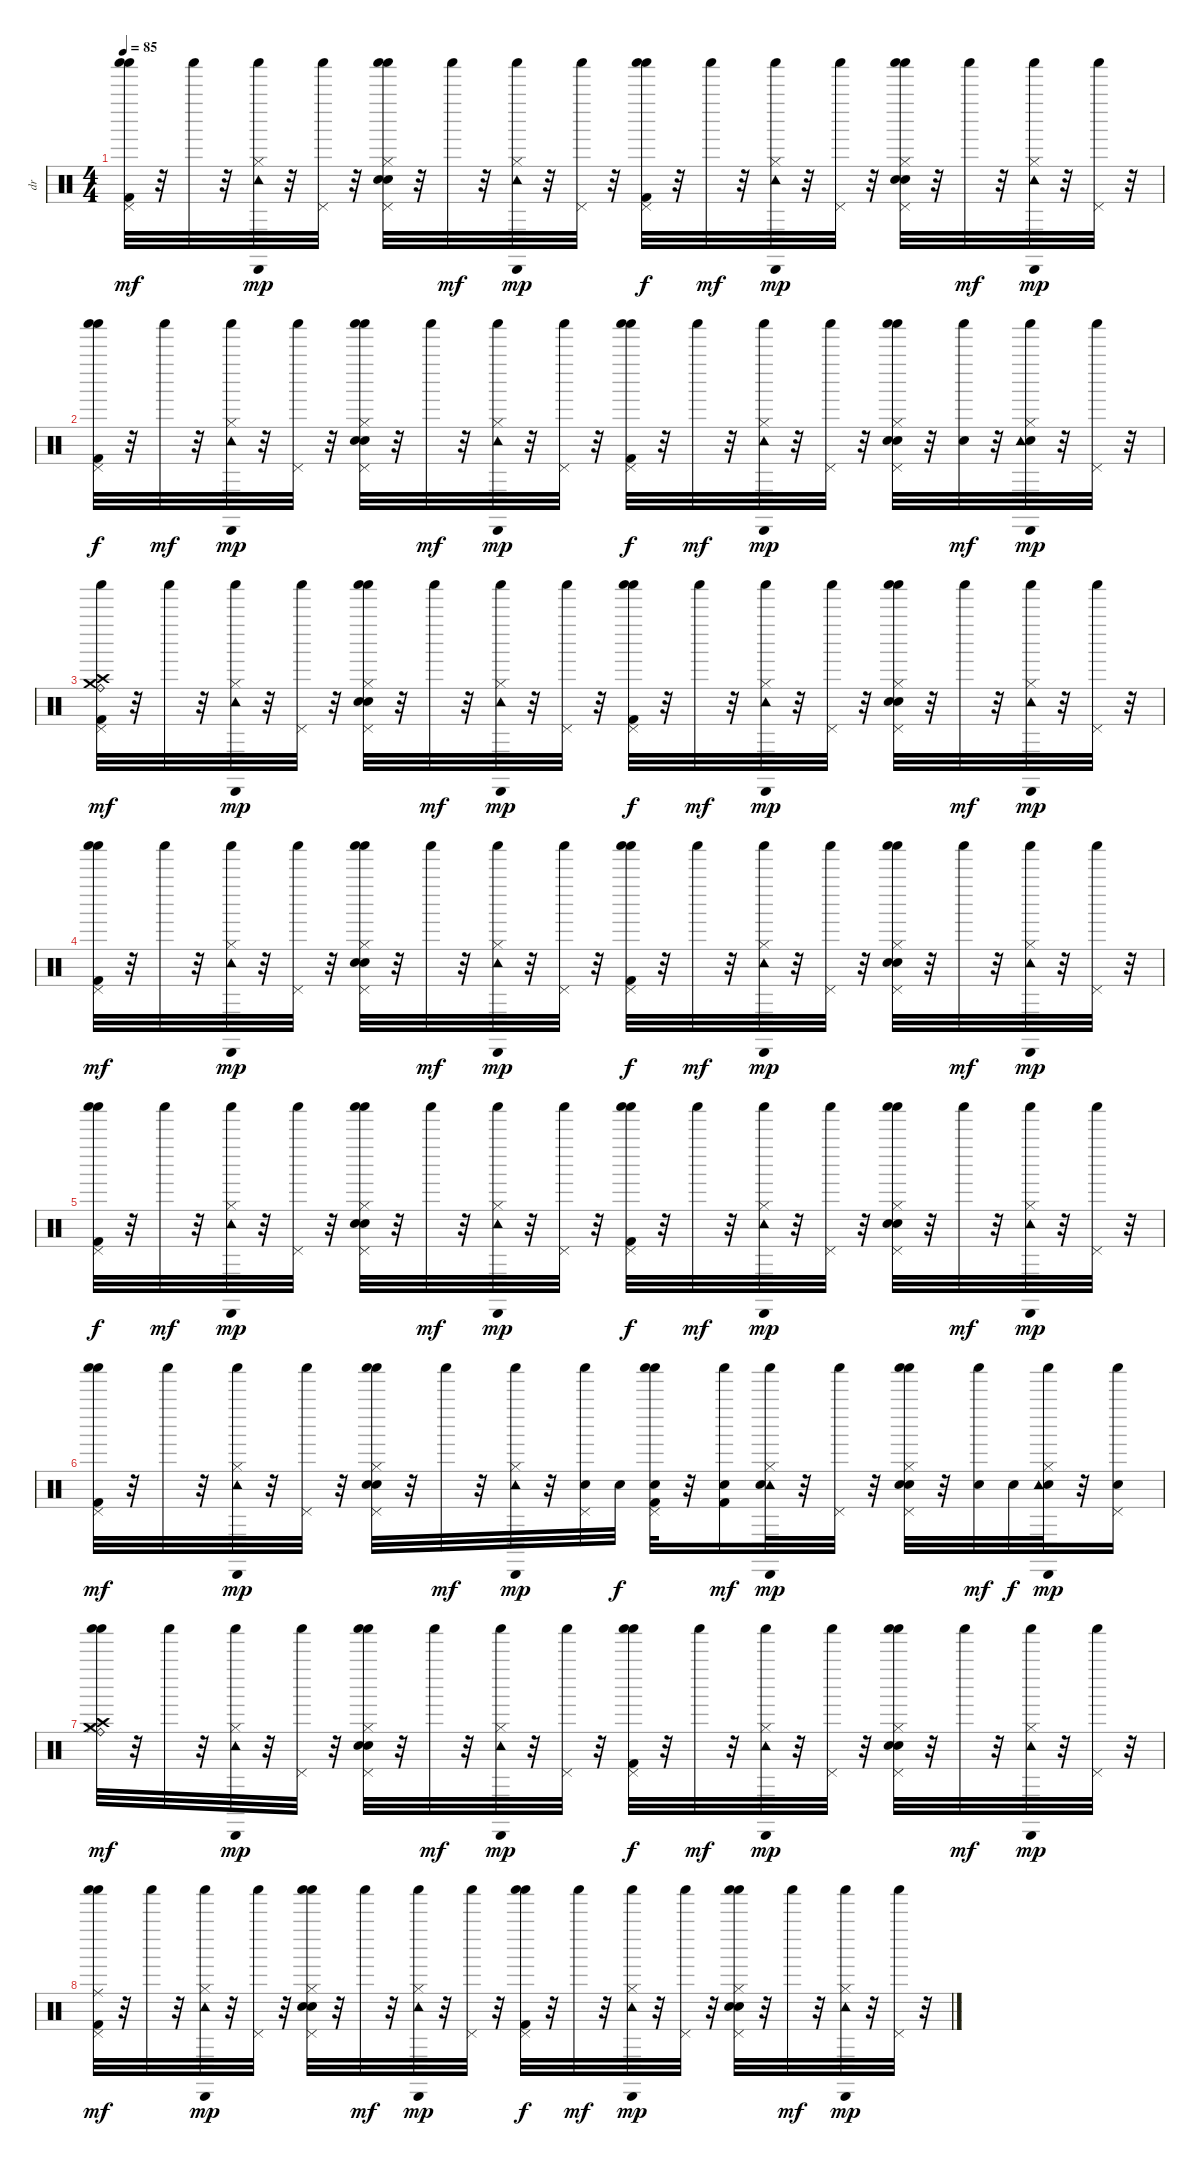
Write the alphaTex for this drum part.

\track ("dr" "dr") {instrument percussion}
\staff {score}
\articulation defaults
\ts (4 4)
\tempo 85
\clef neutral
\ks c
("Pedal Hi-Hat (hit)" "Shaker (hit)" "Shaker (hit)" "Kick (hit) 2").32{dy mf} r.32 "Shaker (hit)".32 r.32 ("Hi-Hat (closed)" "Cabasa (hit)" "Tambourine (hit)" "Shaker (hit)").32{dy mp} r.32 ("Pedal Hi-Hat (hit)" "Shaker (hit)").32 r.32 ("Electric Snare (hit)" "Pedal Hi-Hat (hit)" "Shaker (hit)" "Shaker (hit)" "Hi-Hat (closed)" "Snare (hit) 2").32 r.32 "Shaker (hit)".32{dy mf} r.32 ("Hi-Hat (closed)" "Tambourine (hit)" "Cabasa (hit)" "Shaker (hit)").32{dy mp} r.32 ("Pedal Hi-Hat (hit)" "Shaker (hit)").32 r.32 ("Pedal Hi-Hat (hit)" "Shaker (hit)" "Shaker (hit)" "Kick (hit) 2").32{dy f} r.32 "Shaker (hit)".32{dy mf} r.32 ("Hi-Hat (closed)" "Cabasa (hit)" "Tambourine (hit)" "Shaker (hit)").32{dy mp} r.32 ("Pedal Hi-Hat (hit)" "Shaker (hit)").32 r.32 ("Electric Snare (hit)" "Pedal Hi-Hat (hit)" "Shaker (hit)" "Shaker (hit)" "Hi-Hat (closed)" "Snare (hit) 2").32 r.32 "Shaker (hit)".32{dy mf} r.32 ("Hi-Hat (closed)" "Cabasa (hit)" "Tambourine (hit)" "Shaker (hit)").32{dy mp} r.32 ("Pedal Hi-Hat (hit)" "Shaker (hit)").32 r.32 |
("Pedal Hi-Hat (hit)" "Shaker (hit)" "Shaker (hit)" "Kick (hit) 2").32{dy f} r.32 "Shaker (hit)".32{dy mf} r.32 ("Hi-Hat (closed)" "Cabasa (hit)" "Tambourine (hit)" "Shaker (hit)").32{dy mp} r.32 ("Pedal Hi-Hat (hit)" "Shaker (hit)").32 r.32 ("Pedal Hi-Hat (hit)" "Shaker (hit)" "Shaker (hit)" "Hi-Hat (closed)" "Electric Snare (hit)" "Snare (hit) 2").32 r.32 "Shaker (hit)".32{dy mf} r.32 ("Hi-Hat (closed)" "Cabasa (hit)" "Tambourine (hit)" "Shaker (hit)").32{dy mp} r.32 ("Pedal Hi-Hat (hit)" "Shaker (hit)").32 r.32 ("Pedal Hi-Hat (hit)" "Shaker (hit)" "Shaker (hit)" "Kick (hit) 2").32{dy f} r.32 "Shaker (hit)".32{dy mf} r.32 ("Hi-Hat (closed)" "Cabasa (hit)" "Tambourine (hit)" "Shaker (hit)").32{dy mp} r.32 ("Pedal Hi-Hat (hit)" "Shaker (hit)").32 r.32 ("Electric Snare (hit)" "Pedal Hi-Hat (hit)" "Shaker (hit)" "Shaker (hit)" "Hi-Hat (closed)" "Snare (hit) 2").32 r.32 ("Shaker (hit)" "Snare (hit) 2").32{dy mf} r.32 ("Snare (hit) 2" "Hi-Hat (closed)" "Cabasa (hit)" "Tambourine (hit)" "Shaker (hit)").32{dy mp} r.32 ("Pedal Hi-Hat (hit)" "Shaker (hit)").32 r.32 |
("Kick (hit) 2" "Crash high (hit)" "Ride (bell)" "Crash medium (hit)" "Pedal Hi-Hat (hit)" "Shaker (hit)").32{dy mf} r.32 "Shaker (hit)".32 r.32 ("Hi-Hat (closed)" "Cabasa (hit)" "Tambourine (hit)" "Shaker (hit)").32{dy mp} r.32 ("Pedal Hi-Hat (hit)" "Shaker (hit)").32 r.32 ("Electric Snare (hit)" "Pedal Hi-Hat (hit)" "Shaker (hit)" "Shaker (hit)" "Hi-Hat (closed)" "Snare (hit) 2").32 r.32 "Shaker (hit)".32{dy mf} r.32 ("Hi-Hat (closed)" "Cabasa (hit)" "Tambourine (hit)" "Shaker (hit)").32{dy mp} r.32 ("Pedal Hi-Hat (hit)" "Shaker (hit)").32 r.32 ("Pedal Hi-Hat (hit)" "Shaker (hit)" "Shaker (hit)" "Kick (hit) 2").32{dy f} r.32 "Shaker (hit)".32{dy mf} r.32 ("Hi-Hat (closed)" "Cabasa (hit)" "Tambourine (hit)" "Shaker (hit)").32{dy mp} r.32 ("Pedal Hi-Hat (hit)" "Shaker (hit)").32 r.32 ("Electric Snare (hit)" "Pedal Hi-Hat (hit)" "Shaker (hit)" "Shaker (hit)" "Hi-Hat (closed)" "Snare (hit) 2").32 r.32 "Shaker (hit)".32{dy mf} r.32 ("Hi-Hat (closed)" "Cabasa (hit)" "Tambourine (hit)" "Shaker (hit)").32{dy mp} r.32 ("Pedal Hi-Hat (hit)" "Shaker (hit)").32 r.32 |
("Pedal Hi-Hat (hit)" "Shaker (hit)" "Shaker (hit)" "Kick (hit) 2").32{dy mf} r.32 "Shaker (hit)".32 r.32 ("Hi-Hat (closed)" "Cabasa (hit)" "Tambourine (hit)" "Shaker (hit)").32{dy mp} r.32 ("Pedal Hi-Hat (hit)" "Shaker (hit)").32 r.32 ("Electric Snare (hit)" "Pedal Hi-Hat (hit)" "Shaker (hit)" "Shaker (hit)" "Hi-Hat (closed)" "Snare (hit) 2").32 r.32 "Shaker (hit)".32{dy mf} r.32 ("Hi-Hat (closed)" "Cabasa (hit)" "Tambourine (hit)" "Shaker (hit)").32{dy mp} r.32 ("Pedal Hi-Hat (hit)" "Shaker (hit)").32 r.32 ("Pedal Hi-Hat (hit)" "Shaker (hit)" "Shaker (hit)" "Kick (hit) 2").32{dy f} r.32 "Shaker (hit)".32{dy mf} r.32 ("Hi-Hat (closed)" "Cabasa (hit)" "Tambourine (hit)" "Shaker (hit)").32{dy mp} r.32 ("Pedal Hi-Hat (hit)" "Shaker (hit)").32 r.32 ("Electric Snare (hit)" "Pedal Hi-Hat (hit)" "Shaker (hit)" "Shaker (hit)" "Hi-Hat (closed)" "Snare (hit) 2").32 r.32 "Shaker (hit)".32{dy mf} r.32 ("Hi-Hat (closed)" "Cabasa (hit)" "Tambourine (hit)" "Shaker (hit)").32{dy mp} r.32 ("Pedal Hi-Hat (hit)" "Shaker (hit)").32 r.32 |
("Pedal Hi-Hat (hit)" "Shaker (hit)" "Shaker (hit)" "Kick (hit) 2").32{dy f} r.32 "Shaker (hit)".32{dy mf} r.32 ("Hi-Hat (closed)" "Cabasa (hit)" "Tambourine (hit)" "Shaker (hit)").32{dy mp} r.32 ("Pedal Hi-Hat (hit)" "Shaker (hit)").32 r.32 ("Electric Snare (hit)" "Pedal Hi-Hat (hit)" "Shaker (hit)" "Shaker (hit)" "Hi-Hat (closed)" "Snare (hit) 2").32 r.32 "Shaker (hit)".32{dy mf} r.32 ("Hi-Hat (closed)" "Cabasa (hit)" "Tambourine (hit)" "Shaker (hit)").32{dy mp} r.32 ("Pedal Hi-Hat (hit)" "Shaker (hit)").32 r.32 ("Pedal Hi-Hat (hit)" "Shaker (hit)" "Shaker (hit)" "Kick (hit) 2").32{dy f} r.32 "Shaker (hit)".32{dy mf} r.32 ("Hi-Hat (closed)" "Cabasa (hit)" "Tambourine (hit)" "Shaker (hit)").32{dy mp} r.32 ("Pedal Hi-Hat (hit)" "Shaker (hit)").32 r.32 ("Electric Snare (hit)" "Pedal Hi-Hat (hit)" "Shaker (hit)" "Shaker (hit)" "Hi-Hat (closed)" "Snare (hit) 2").32 r.32 "Shaker (hit)".32{dy mf} r.32 ("Hi-Hat (closed)" "Cabasa (hit)" "Tambourine (hit)" "Shaker (hit)").32{dy mp} r.32 ("Pedal Hi-Hat (hit)" "Shaker (hit)").32 r.32 |
("Pedal Hi-Hat (hit)" "Shaker (hit)" "Shaker (hit)" "Kick (hit) 2").32{dy mf} r.32 "Shaker (hit)".32 r.32 ("Hi-Hat (closed)" "Cabasa (hit)" "Tambourine (hit)" "Shaker (hit)").32{dy mp} r.32 ("Pedal Hi-Hat (hit)" "Shaker (hit)").32 r.32 ("Electric Snare (hit)" "Pedal Hi-Hat (hit)" "Shaker (hit)" "Shaker (hit)" "Hi-Hat (closed)" "Snare (hit) 2").32 r.32 "Shaker (hit)".32{dy mf} r.32 ("Hi-Hat (closed)" "Cabasa (hit)" "Tambourine (hit)" "Shaker (hit)").32{dy mp} r.32 ("Shaker (hit)" "Pedal Hi-Hat (hit)" "Snare (hit) 2").32 "Snare (hit) 2".32{dy f} ("Pedal Hi-Hat (hit)" "Shaker (hit)" "Shaker (hit)" "Kick (hit) 2" "Snare (hit) 2").32 r.32 ("Shaker (hit)" "Kick (hit) 2" "Snare (hit) 2").16{dy mf} ("Hi-Hat (closed)" "Cabasa (hit)" "Tambourine (hit)" "Shaker (hit)" "Snare (hit) 2").32{dy mp} r.32 ("Pedal Hi-Hat (hit)" "Shaker (hit)").32 r.32 ("Electric Snare (hit)" "Pedal Hi-Hat (hit)" "Shaker (hit)" "Shaker (hit)" "Hi-Hat (closed)" "Snare (hit) 2").32 r.32 ("Snare (hit) 2" "Shaker (hit)").32{dy mf} "Snare (hit) 2".32{dy f} ("Snare (hit) 2" "Hi-Hat (closed)" "Cabasa (hit)" "Tambourine (hit)" "Shaker (hit)").32{dy mp} r.32 ("Pedal Hi-Hat (hit)" "Shaker (hit)" "Snare (hit) 2").16 |
("Shaker (hit)" "Shaker (hit)" "Crash medium (hit)" "Ride (bell)" "Crash high (hit)" "Hi-Hat (closed)").32{dy mf} r.32 "Shaker (hit)".32 r.32 ("Hi-Hat (closed)" "Tambourine (hit)" "Cabasa (hit)" "Shaker (hit)").32{dy mp} r.32 ("Pedal Hi-Hat (hit)" "Shaker (hit)").32 r.32 ("Electric Snare (hit)" "Pedal Hi-Hat (hit)" "Shaker (hit)" "Shaker (hit)" "Hi-Hat (closed)" "Snare (hit) 2").32 r.32 "Shaker (hit)".32{dy mf} r.32 ("Hi-Hat (closed)" "Tambourine (hit)" "Cabasa (hit)" "Shaker (hit)").32{dy mp} r.32 ("Pedal Hi-Hat (hit)" "Shaker (hit)").32 r.32 ("Pedal Hi-Hat (hit)" "Shaker (hit)" "Shaker (hit)" "Kick (hit) 2").32{dy f} r.32 "Shaker (hit)".32{dy mf} r.32 ("Hi-Hat (closed)" "Tambourine (hit)" "Cabasa (hit)" "Shaker (hit)").32{dy mp} r.32 ("Pedal Hi-Hat (hit)" "Shaker (hit)").32 r.32 ("Electric Snare (hit)" "Pedal Hi-Hat (hit)" "Shaker (hit)" "Shaker (hit)" "Hi-Hat (closed)" "Snare (hit) 2").32 r.32 "Shaker (hit)".32{dy mf} r.32 ("Hi-Hat (closed)" "Tambourine (hit)" "Cabasa (hit)" "Shaker (hit)").32{dy mp} r.32 ("Pedal Hi-Hat (hit)" "Shaker (hit)").32 r.32 |
("Pedal Hi-Hat (hit)" "Shaker (hit)" "Shaker (hit)" "Kick (hit) 2" "Ride (middle)").32{dy mf} r.32 "Shaker (hit)".32 r.32 ("Hi-Hat (closed)" "Tambourine (hit)" "Cabasa (hit)" "Shaker (hit)").32{dy mp} r.32 ("Pedal Hi-Hat (hit)" "Shaker (hit)").32 r.32 ("Electric Snare (hit)" "Pedal Hi-Hat (hit)" "Shaker (hit)" "Shaker (hit)" "Hi-Hat (closed)" "Snare (hit) 2").32 r.32 "Shaker (hit)".32{dy mf} r.32 ("Hi-Hat (closed)" "Tambourine (hit)" "Cabasa (hit)" "Shaker (hit)").32{dy mp} r.32 ("Pedal Hi-Hat (hit)" "Shaker (hit)").32 r.32 ("Pedal Hi-Hat (hit)" "Shaker (hit)" "Shaker (hit)" "Kick (hit) 2").32{dy f} r.32 "Shaker (hit)".32{dy mf} r.32 ("Hi-Hat (closed)" "Tambourine (hit)" "Cabasa (hit)" "Shaker (hit)").32{dy mp} r.32 ("Pedal Hi-Hat (hit)" "Shaker (hit)").32 r.32 ("Electric Snare (hit)" "Pedal Hi-Hat (hit)" "Shaker (hit)" "Shaker (hit)" "Hi-Hat (closed)" "Snare (hit) 2").32 r.32 "Shaker (hit)".32{dy mf} r.32 ("Hi-Hat (closed)" "Tambourine (hit)" "Cabasa (hit)" "Shaker (hit)").32{dy mp} r.32 ("Pedal Hi-Hat (hit)" "Shaker (hit)").32 r.32
